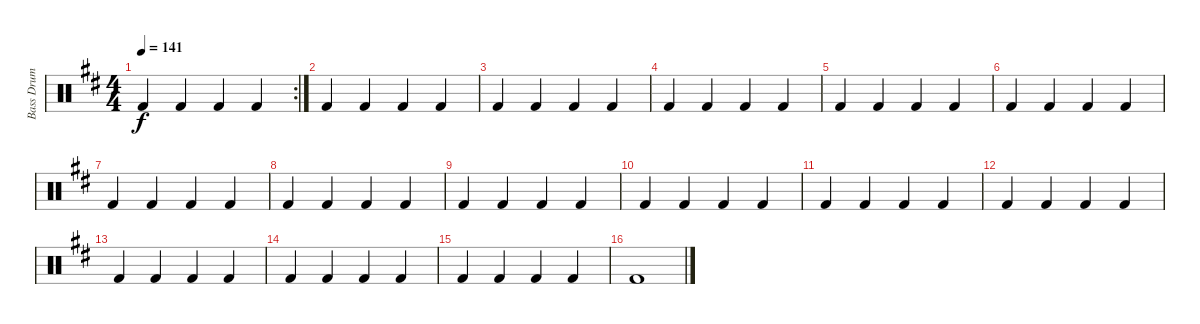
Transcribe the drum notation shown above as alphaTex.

\track ("Bass Drum" "Bass Drum") {instrument percussion}
\staff {score}
\articulation defaults
\rc 2
\ts (4 4)
\tempo 141
\clef neutral
\ks d "Kick (hit) 2".4{dy f} "Kick (hit) 2".4 "Kick (hit) 2".4 "Kick (hit) 2".4
|
"Kick (hit) 2".4 "Kick (hit) 2".4 "Kick (hit) 2".4 "Kick (hit) 2".4 |
"Kick (hit) 2".4 "Kick (hit) 2".4 "Kick (hit) 2".4 "Kick (hit) 2".4 |
"Kick (hit) 2".4 "Kick (hit) 2".4 "Kick (hit) 2".4 "Kick (hit) 2".4 |
"Kick (hit) 2".4 "Kick (hit) 2".4 "Kick (hit) 2".4 "Kick (hit) 2".4 |
"Kick (hit) 2".4 "Kick (hit) 2".4 "Kick (hit) 2".4 "Kick (hit) 2".4 |
"Kick (hit) 2".4 "Kick (hit) 2".4 "Kick (hit) 2".4 "Kick (hit) 2".4 |
"Kick (hit) 2".4 "Kick (hit) 2".4 "Kick (hit) 2".4 "Kick (hit) 2".4 |
"Kick (hit) 2".4 "Kick (hit) 2".4 "Kick (hit) 2".4 "Kick (hit) 2".4 |
"Kick (hit) 2".4 "Kick (hit) 2".4 "Kick (hit) 2".4 "Kick (hit) 2".4 |
"Kick (hit) 2".4 "Kick (hit) 2".4 "Kick (hit) 2".4 "Kick (hit) 2".4 |
"Kick (hit) 2".4 "Kick (hit) 2".4 "Kick (hit) 2".4 "Kick (hit) 2".4 |
"Kick (hit) 2".4 "Kick (hit) 2".4 "Kick (hit) 2".4 "Kick (hit) 2".4 |
"Kick (hit) 2".4 "Kick (hit) 2".4 "Kick (hit) 2".4 "Kick (hit) 2".4 |
"Kick (hit) 2".4 "Kick (hit) 2".4 "Kick (hit) 2".4 "Kick (hit) 2".4 |
"Kick (hit) 2".1
